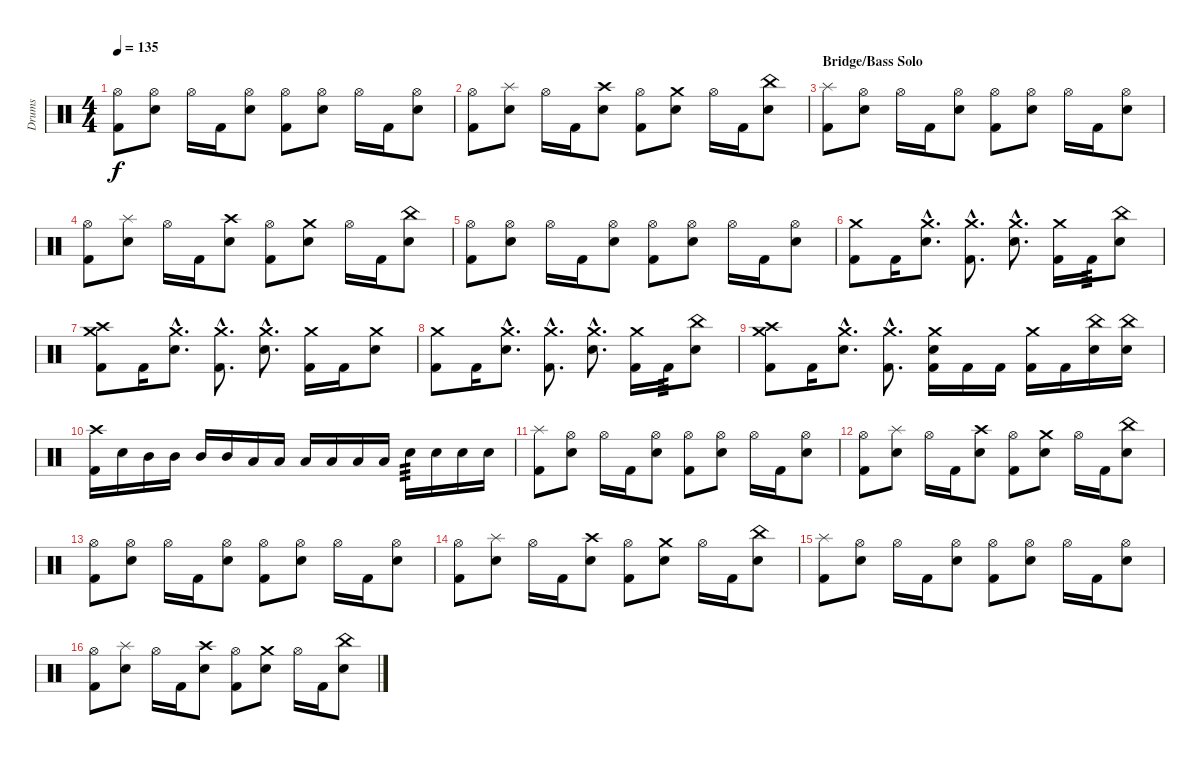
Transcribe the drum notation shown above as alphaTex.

\track ("Drums" "Drums") {instrument percussion}
\staff {score}
\articulation defaults
\ts (4 4)
\tempo 135
\clef neutral
\ks c
("Hi-Hat (open)" "Kick (hit) 2").8{dy f} ("Hi-Hat (open)" "Snare (hit) 2").8 "Hi-Hat (open)".16 "Kick (hit) 2".16 ("Hi-Hat (open)" "Snare (hit) 2").8 ("Hi-Hat (open)" "Kick (hit) 2").8 ("Hi-Hat (open)" "Snare (hit) 2").8 "Hi-Hat (open)".16 "Kick (hit) 2".16 ("Hi-Hat (open)" "Snare (hit) 2").8 |
("Hi-Hat (open)" "Kick (hit) 2").8 ("Splash (hit)" "Snare (hit) 2").8 "Hi-Hat (open)".16 "Kick (hit) 2".16 ("Crash high (hit)" "Snare (hit) 2").8 ("Hi-Hat (open)" "Kick (hit) 2").8 ("Crash medium (hit)" "Snare (hit) 2").8 "Hi-Hat (open)".16 "Kick (hit) 2".16 ("China (hit)" "Snare (hit) 2").8 |
\section ("" "Bridge/Bass Solo")
("Splash (hit)" "Kick (hit) 2").8 ("Hi-Hat (open)" "Snare (hit) 2").8 "Hi-Hat (open)".16 "Kick (hit) 2".16 ("Hi-Hat (open)" "Snare (hit) 2").8 ("Hi-Hat (open)" "Kick (hit) 2").8 ("Hi-Hat (open)" "Snare (hit) 2").8 "Hi-Hat (open)".16 "Kick (hit) 2".16 ("Hi-Hat (open)" "Snare (hit) 2").8 |
("Hi-Hat (open)" "Kick (hit) 2").8 ("Splash (hit)" "Snare (hit) 2").8 "Hi-Hat (open)".16 "Kick (hit) 2".16 ("Crash high (hit)" "Snare (hit) 2").8 ("Hi-Hat (open)" "Kick (hit) 2").8 ("Crash medium (hit)" "Snare (hit) 2").8 "Hi-Hat (open)".16 "Kick (hit) 2".16 ("China (hit)" "Snare (hit) 2").8 |
("Hi-Hat (open)" "Kick (hit) 2").8 ("Hi-Hat (open)" "Snare (hit) 2").8 "Hi-Hat (open)".16 "Kick (hit) 2".16 ("Hi-Hat (open)" "Snare (hit) 2").8 ("Hi-Hat (open)" "Kick (hit) 2").8 ("Hi-Hat (open)" "Snare (hit) 2").8 "Hi-Hat (open)".16 "Kick (hit) 2".16 ("Hi-Hat (open)" "Snare (hit) 2").8 |
("Crash medium (hit)" "Kick (hit) 2").8 "Kick (hit) 2".16 ("Crash medium (hit)"{hac} "Snare (hit) 2"{hac}).8{d} ("Crash medium (hit)"{hac} "Kick (hit) 2"{hac}).8{d} ("Crash medium (hit)"{hac} "Snare (hit) 2"{hac}).8{d} ("Crash medium (hit)" "Kick (hit) 2").16 "Kick (hit) 2".16{tp 3} ("China (hit)" "Snare (hit) 2").8 |
("Crash medium (hit)" "Crash high (hit)" "Kick (hit) 2").8 "Kick (hit) 2".16 ("Crash medium (hit)"{hac} "Snare (hit) 2"{hac}).8{d} ("Crash medium (hit)"{hac} "Kick (hit) 2"{hac}).8{d} ("Crash medium (hit)"{hac} "Snare (hit) 2"{hac}).8{d} ("Crash medium (hit)" "Kick (hit) 2").16 "Kick (hit) 2".16 ("Crash medium (hit)" "Snare (hit) 2").8 |
("Crash medium (hit)" "Kick (hit) 2").8 "Kick (hit) 2".16 ("Crash medium (hit)"{hac} "Snare (hit) 2"{hac}).8{d} ("Crash medium (hit)"{hac} "Kick (hit) 2"{hac}).8{d} ("Crash medium (hit)"{hac} "Snare (hit) 2"{hac}).8{d} ("Crash medium (hit)" "Kick (hit) 2").16 "Kick (hit) 2".16{tp 3} ("China (hit)" "Snare (hit) 2").8 |
("Crash medium (hit)" "Crash high (hit)" "Kick (hit) 2").8 "Kick (hit) 2".16 ("Crash medium (hit)"{hac} "Snare (hit) 2"{hac}).8{d} ("Crash medium (hit)"{hac} "Kick (hit) 2"{hac}).8{d} ("Crash medium (hit)" "Snare (hit) 2" "Kick (hit) 2").16 "Kick (hit) 2".16 "Kick (hit) 2".16 ("Crash medium (hit)" "Kick (hit) 2").16 "Kick (hit) 2".16 ("China (hit)" "Snare (hit) 2").16 ("China (hit)" "Snare (hit) 2").16 |
("Crash high (hit)" "Kick (hit) 2").16 "Snare (hit) 2".16 "Mid Tom (hit)".16 "Mid Tom (hit)".16 "Mid Tom (hit)".16 "Mid Tom (hit)".16 "Low Tom (hit)".16 "Low Tom (hit)".16 "Low Tom (hit)".16 "Low Tom (hit)".16 "Low Floor Tom (hit)".16 "Low Floor Tom (hit)".16 "Snare (hit) 2".16{tp 3} "Snare (hit) 2".16 "Snare (hit) 2".16 "Snare (hit) 2".16 |
("Splash (hit)" "Kick (hit) 2").8 ("Hi-Hat (open)" "Snare (hit) 2").8 "Hi-Hat (open)".16 "Kick (hit) 2".16 ("Hi-Hat (open)" "Snare (hit) 2").8 ("Hi-Hat (open)" "Kick (hit) 2").8 ("Hi-Hat (open)" "Snare (hit) 2").8 "Hi-Hat (open)".16 "Kick (hit) 2".16 ("Hi-Hat (open)" "Snare (hit) 2").8 |
("Hi-Hat (open)" "Kick (hit) 2").8 ("Splash (hit)" "Snare (hit) 2").8 "Hi-Hat (open)".16 "Kick (hit) 2".16 ("Crash high (hit)" "Snare (hit) 2").8 ("Hi-Hat (open)" "Kick (hit) 2").8 ("Crash medium (hit)" "Snare (hit) 2").8 "Hi-Hat (open)".16 "Kick (hit) 2".16 ("China (hit)" "Snare (hit) 2").8 |
("Hi-Hat (open)" "Kick (hit) 2").8 ("Hi-Hat (open)" "Snare (hit) 2").8 "Hi-Hat (open)".16 "Kick (hit) 2".16 ("Hi-Hat (open)" "Snare (hit) 2").8 ("Hi-Hat (open)" "Kick (hit) 2").8 ("Hi-Hat (open)" "Snare (hit) 2").8 "Hi-Hat (open)".16 "Kick (hit) 2".16 ("Hi-Hat (open)" "Snare (hit) 2").8 |
("Hi-Hat (open)" "Kick (hit) 2").8 ("Splash (hit)" "Snare (hit) 2").8 "Hi-Hat (open)".16 "Kick (hit) 2".16 ("Crash high (hit)" "Snare (hit) 2").8 ("Hi-Hat (open)" "Kick (hit) 2").8 ("Crash medium (hit)" "Snare (hit) 2").8 "Hi-Hat (open)".16 "Kick (hit) 2".16 ("China (hit)" "Snare (hit) 2").8 |
("Splash (hit)" "Kick (hit) 2").8 ("Hi-Hat (open)" "Snare (hit) 2").8 "Hi-Hat (open)".16 "Kick (hit) 2".16 ("Hi-Hat (open)" "Snare (hit) 2").8 ("Hi-Hat (open)" "Kick (hit) 2").8 ("Hi-Hat (open)" "Snare (hit) 2").8 "Hi-Hat (open)".16 "Kick (hit) 2".16 ("Hi-Hat (open)" "Snare (hit) 2").8 |
("Hi-Hat (open)" "Kick (hit) 2").8 ("Splash (hit)" "Snare (hit) 2").8 "Hi-Hat (open)".16 "Kick (hit) 2".16 ("Crash high (hit)" "Snare (hit) 2").8 ("Hi-Hat (open)" "Kick (hit) 2").8 ("Crash medium (hit)" "Snare (hit) 2").8 "Hi-Hat (open)".16 "Kick (hit) 2".16 ("China (hit)" "Snare (hit) 2").8
